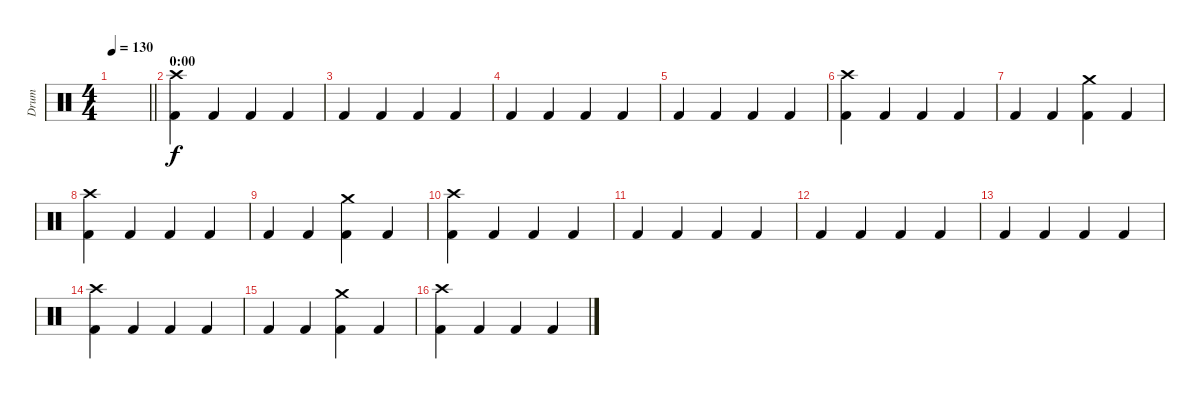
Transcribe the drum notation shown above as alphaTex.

\track ("Drum" "Drum") {instrument percussion}
\staff {score}
\articulation defaults
\ts (4 4)
\tempo 130
\clef neutral
\barLineRight lightlight
\ks c
|
\section ("" "0:00")
("Kick (hit) 2" "Crash high (hit)").4 "Kick (hit) 2".4 "Kick (hit) 2".4 "Kick (hit) 2".4 |
"Kick (hit) 2".4 "Kick (hit) 2".4 "Kick (hit) 2".4 "Kick (hit) 2".4 |
"Kick (hit) 2".4 "Kick (hit) 2".4 "Kick (hit) 2".4 "Kick (hit) 2".4 |
"Kick (hit) 2".4 "Kick (hit) 2".4 "Kick (hit) 2".4 "Kick (hit) 2".4 |
("Kick (hit) 2" "Crash high (hit)").4 "Kick (hit) 2".4 "Kick (hit) 2".4 "Kick (hit) 2".4 |
"Kick (hit) 2".4 "Kick (hit) 2".4 ("Kick (hit) 2" "Crash medium (hit)").4 "Kick (hit) 2".4 |
("Kick (hit) 2" "Crash high (hit)").4 "Kick (hit) 2".4 "Kick (hit) 2".4 "Kick (hit) 2".4 |
"Kick (hit) 2".4 "Kick (hit) 2".4 ("Kick (hit) 2" "Crash medium (hit)").4 "Kick (hit) 2".4 |
("Kick (hit) 2" "Crash high (hit)").4 "Kick (hit) 2".4 "Kick (hit) 2".4 "Kick (hit) 2".4 |
"Kick (hit) 2".4 "Kick (hit) 2".4 "Kick (hit) 2".4 "Kick (hit) 2".4 |
"Kick (hit) 2".4 "Kick (hit) 2".4 "Kick (hit) 2".4 "Kick (hit) 2".4 |
"Kick (hit) 2".4 "Kick (hit) 2".4 "Kick (hit) 2".4 "Kick (hit) 2".4 |
("Kick (hit) 2" "Crash high (hit)").4 "Kick (hit) 2".4 "Kick (hit) 2".4 "Kick (hit) 2".4 |
"Kick (hit) 2".4 "Kick (hit) 2".4 ("Kick (hit) 2" "Crash medium (hit)").4 "Kick (hit) 2".4 |
("Kick (hit) 2" "Crash high (hit)").4 "Kick (hit) 2".4 "Kick (hit) 2".4 "Kick (hit) 2".4
